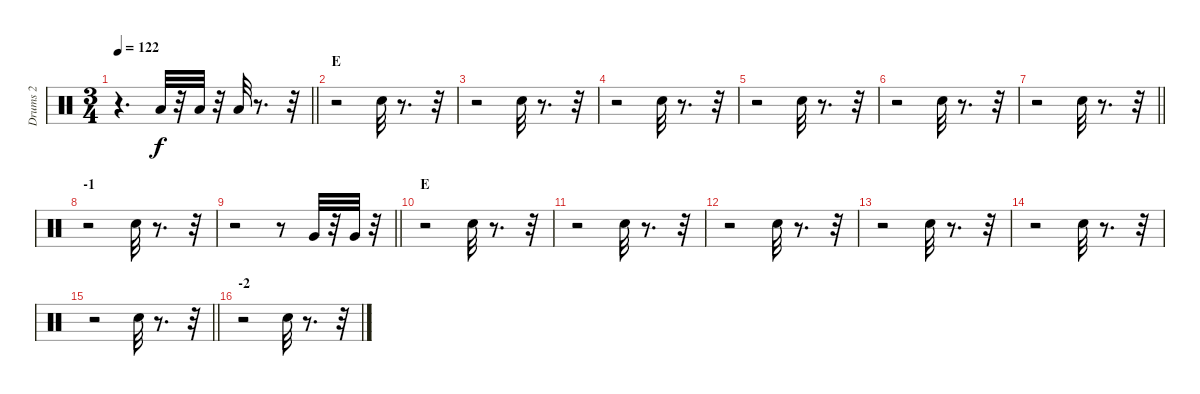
\track ("Drums 2" "Drums 2") {instrument percussion}
\staff {score}
\articulation defaults
\ts (3 4)
\tempo 122
\clef neutral
\barLineRight lightlight
\ks c
r.4{d dy f} "Low Floor Tom (hit)".32 r.32 "Low Floor Tom (hit)".32 r.32 "Low Floor Tom (hit)".32 r.8{d} r.32 |
\section ("" "E")
r.2 "Electric Snare (hit)".32 r.8{d} r.32 |
r.2 "Electric Snare (hit)".32 r.8{d} r.32 |
r.2 "Electric Snare (hit)".32 r.8{d} r.32 |
r.2 "Electric Snare (hit)".32 r.8{d} r.32 |
r.2 "Electric Snare (hit)".32 r.8{d} r.32 |
\barLineRight lightlight
r.2 "Electric Snare (hit)".32 r.8{d} r.32 |
\section ("" "-1")
r.2 "Electric Snare (hit)".32 r.8{d} r.32 |
\barLineRight lightlight
r.2 r.8 "Very Low Tom (hit)".32 r.32 "Very Low Tom (hit)".32 r.32 |
\section ("" "E")
r.2 "Electric Snare (hit)".32 r.8{d} r.32 |
r.2 "Electric Snare (hit)".32 r.8{d} r.32 |
r.2 "Electric Snare (hit)".32 r.8{d} r.32 |
r.2 "Electric Snare (hit)".32 r.8{d} r.32 |
r.2 "Electric Snare (hit)".32 r.8{d} r.32 |
\barLineRight lightlight
r.2 "Electric Snare (hit)".32 r.8{d} r.32 |
\section ("" "-2")
r.2 "Electric Snare (hit)".32 r.8{d} r.32
